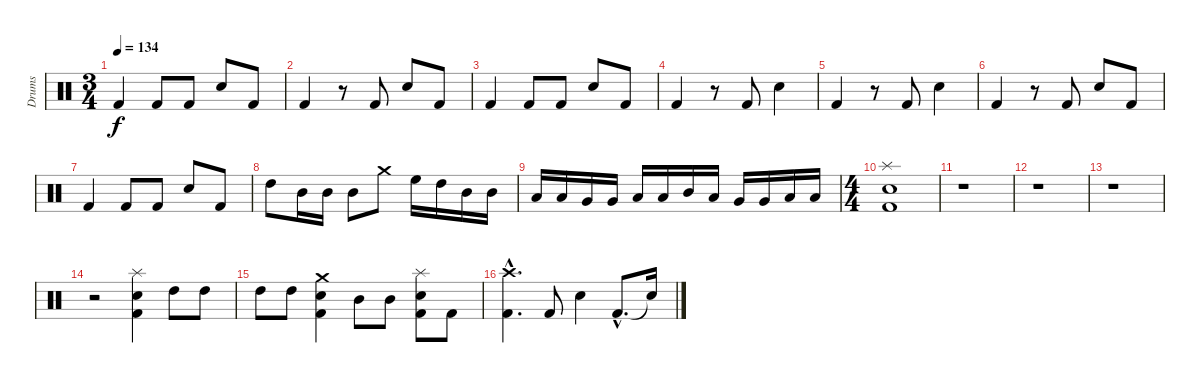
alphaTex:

\track ("Drums" "Drums") {instrument percussion}
\staff {score}
\articulation defaults
\ts (3 4)
\tempo 134
\clef neutral
\ks c "Kick (hit) 2".4{dy f} "Kick (hit) 2".8 "Kick (hit) 2".8 "Snare (hit) 2".8 "Kick (hit) 2".8
|
"Kick (hit) 2".4 r.8 "Kick (hit) 2".8 "Snare (hit) 2".8 "Kick (hit) 2".8 |
"Kick (hit) 2".4 "Kick (hit) 2".8 "Kick (hit) 2".8 "Snare (hit) 2".8 "Kick (hit) 2".8 |
"Kick (hit) 2".4 r.8 "Kick (hit) 2".8 "Snare (hit) 2".4 |
"Kick (hit) 2".4 r.8 "Kick (hit) 2".8 "Snare (hit) 2".4 |
"Kick (hit) 2".4 r.8 "Kick (hit) 2".8 "Snare (hit) 2".8 "Kick (hit) 2".8 |
"Kick (hit) 2".4 "Kick (hit) 2".8 "Kick (hit) 2".8 "Snare (hit) 2".8 "Kick (hit) 2".8 |
"High Tom (hit)".8 "Mid Tom (hit)".16 "Mid Tom (hit)".16 "Mid Tom (hit)".8 "Crash medium (hit)".8 "High Floor Tom (hit)".16 "High Tom (hit)".16 "Mid Tom (hit)".16 "Mid Tom (hit)".16 |
"Low Tom (hit)".16 "Low Tom (hit)".16 "Very Low Tom (hit)".16 "Very Low Tom (hit)".16 "Low Floor Tom (hit)".16 "Low Floor Tom (hit)".16 "Mid Tom (hit)".16 "Low Tom (hit)".16 "Very Low Tom (hit)".16 "Very Low Tom (hit)".16 "Low Floor Tom (hit)".16 "Low Floor Tom (hit)".16 |
\ts (4 4)
("Kick (hit) 2" "Snare (hit) 2" "Splash (hit)").1 |
r.1 |
r.1 |
r.1 |
r.2 ("Kick (hit) 2" "Snare (hit) 2" "Splash (hit)").4 "High Tom (hit)".8 "High Tom (hit)".8 |
"High Tom (hit)".8 "High Tom (hit)".8 ("Kick (hit) 2" "Snare (hit) 2" "Crash medium (hit)").4 "Mid Tom (hit)".8 "Mid Tom (hit)".8 ("Kick (hit) 2" "Snare (hit) 2" "Splash (hit)").8 "Kick (hit) 2".8 |
("Kick (hit) 2"{hac} "Crash high (hit)"{hac}).4{d} "Kick (hit) 2".8 "Snare (hit) 2".4 "Kick (hit) 2"{hac}.8{d} "Snare (hit)"{t}.16
